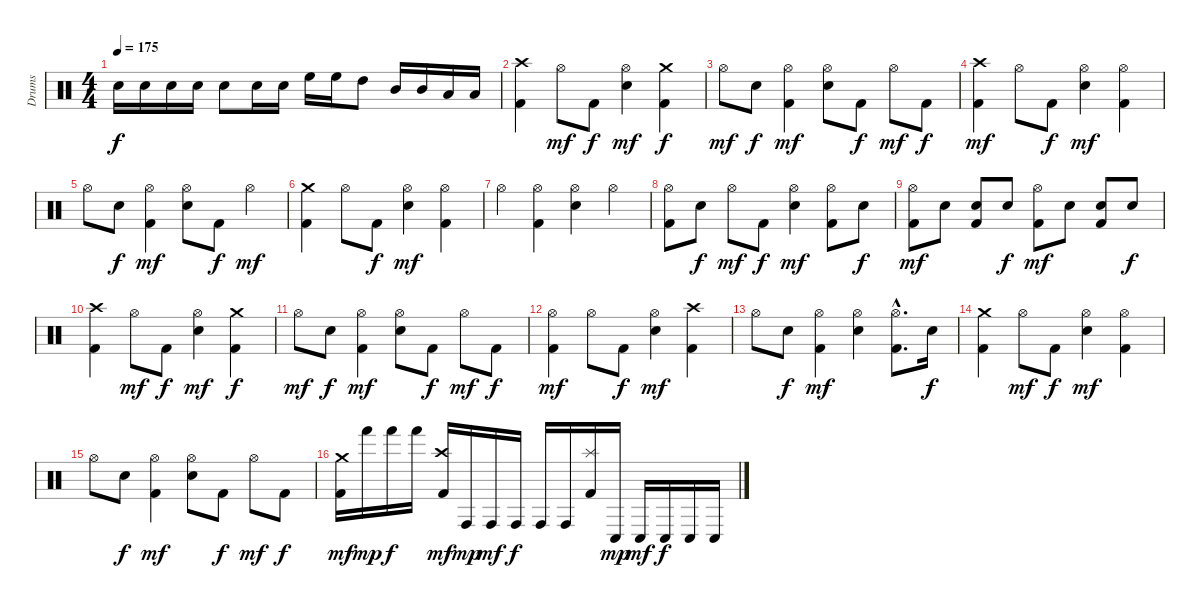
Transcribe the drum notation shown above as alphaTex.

\track ("Drums" "Drums") {instrument percussion}
\staff {score}
\articulation defaults
\ts (4 4)
\tempo 175
\clef neutral
\ks c "Electric Snare (hit)".16{dy f} "Electric Snare (hit)".16 "Electric Snare (hit)".16 "Electric Snare (hit)".16 "Electric Snare (hit)".8 "Electric Snare (hit)".16 "Electric Snare (hit)".16 "High Floor Tom (hit)".16 "High Floor Tom (hit)".16 "High Tom (hit)".8 "Mid Tom (hit)".16 "Mid Tom (hit)".16 "Low Tom (hit)".16 "Low Tom (hit)".16
|
("Crash high (hit)" "Kick (hit) 2").4 "Hi-Hat (open)".8{dy mf} "Kick (hit) 2".8{dy f} ("Hi-Hat (open)" "Electric Snare (hit)").4{dy mf} ("Crash medium (hit)" "Kick (hit) 2").4{dy f} |
"Hi-Hat (open)".8{dy mf} "Electric Snare (hit)".8{dy f} ("Hi-Hat (open)" "Kick (hit) 2").4{dy mf} ("Hi-Hat (open)" "Electric Snare (hit)").8 "Kick (hit) 2".8{dy f} "Hi-Hat (open)".8{dy mf} "Kick (hit) 2".8{dy f} |
("Crash high (hit)" "Kick (hit) 2").4{dy mf} "Hi-Hat (open)".8 "Kick (hit) 2".8{dy f} ("Hi-Hat (open)" "Electric Snare (hit)").4{dy mf} ("Hi-Hat (open)" "Kick (hit) 2").4 |
"Hi-Hat (open)".8 "Electric Snare (hit)".8{dy f} ("Hi-Hat (open)" "Kick (hit) 2").4{dy mf} ("Hi-Hat (open)" "Electric Snare (hit)").8 "Kick (hit) 2".8{dy f} "Hi-Hat (open)".4{dy mf} |
("Crash medium (hit)" "Kick (hit) 2").4 "Hi-Hat (open)".8 "Kick (hit) 2".8{dy f} ("Hi-Hat (open)" "Electric Snare (hit)").4{dy mf} ("Hi-Hat (open)" "Kick (hit) 2").4 |
"Hi-Hat (open)".4 ("Hi-Hat (open)" "Kick (hit) 2").4 ("Hi-Hat (open)" "Electric Snare (hit)").4 "Hi-Hat (open)".4 |
("Hi-Hat (open)" "Kick (hit) 2").8 "Electric Snare (hit)".8{dy f} "Hi-Hat (open)".8{dy mf} "Kick (hit) 2".8{dy f} ("Hi-Hat (open)" "Electric Snare (hit)").4{dy mf} ("Hi-Hat (open)" "Kick (hit) 2").8 "Electric Snare (hit)".8{dy f} |
("Hi-Hat (open)" "Kick (hit) 2").8{dy mf} "Electric Snare (hit)".8 ("Electric Snare (hit)" "Kick (hit) 2").8 "Electric Snare (hit)".8{dy f} ("Hi-Hat (open)" "Kick (hit) 2").8{dy mf} "Electric Snare (hit)".8 ("Electric Snare (hit)" "Kick (hit) 2").8 "Electric Snare (hit)".8{dy f} |
("Crash high (hit)" "Kick (hit) 2").4 "Hi-Hat (open)".8{dy mf} "Kick (hit) 2".8{dy f} ("Hi-Hat (open)" "Electric Snare (hit)").4{dy mf} ("Crash medium (hit)" "Kick (hit) 2").4{dy f} |
"Hi-Hat (open)".8{dy mf} "Electric Snare (hit)".8{dy f} ("Hi-Hat (open)" "Kick (hit) 2").4{dy mf} ("Hi-Hat (open)" "Electric Snare (hit)").8 "Kick (hit) 2".8{dy f} "Hi-Hat (open)".8{dy mf} "Kick (hit) 2".8{dy f} |
("Hi-Hat (open)" "Kick (hit) 2").4{dy mf} "Hi-Hat (open)".8 "Kick (hit) 2".8{dy f} ("Hi-Hat (open)" "Electric Snare (hit)").4{dy mf} ("Crash high (hit)" "Kick (hit) 2").4 |
"Hi-Hat (open)".8 "Electric Snare (hit)".8{dy f} ("Hi-Hat (open)" "Kick (hit) 2").4{dy mf} ("Hi-Hat (open)" "Electric Snare (hit)").4 ("Hi-Hat (open)"{hac} "Kick (hit) 2"{hac}).8{d} "Electric Snare (hit)".16{dy f} |
("Crash medium (hit)" "Kick (hit) 2").4 "Hi-Hat (open)".8{dy mf} "Kick (hit) 2".8{dy f} ("Hi-Hat (open)" "Electric Snare (hit)").4{dy mf} ("Hi-Hat (open)" "Kick (hit) 2").4 |
"Hi-Hat (open)".8 "Electric Snare (hit)".8{dy f} ("Hi-Hat (open)" "Kick (hit) 2").4{dy mf} ("Hi-Hat (open)" "Electric Snare (hit)").8 "Kick (hit) 2".8{dy f} "Hi-Hat (open)".8{dy mf} "Kick (hit) 2".8{dy f} |
("Crash medium (hit)" "Kick (hit) 2").16{dy mf} "Hand (hit)".16{dy mp} "Hand (hit)".16{dy f} "Hand (hit)".16 ("Crash high (hit)" "Kick (hit) 2").16{dy mf} "Conga high (hit)".16{dy mp} "Conga high (hit)".16{dy mf} "Conga high (hit)".16{dy f} "Conga high (hit)".16 "Conga high (hit)".16 ("Splash (hit)" "Kick (hit) 2").16 "Conga low (hit)".16{dy mp} "Conga low (hit)".16{dy mf} "Conga low (hit)".16{dy f} "Conga low (hit)".16 "Conga low (hit)".16
